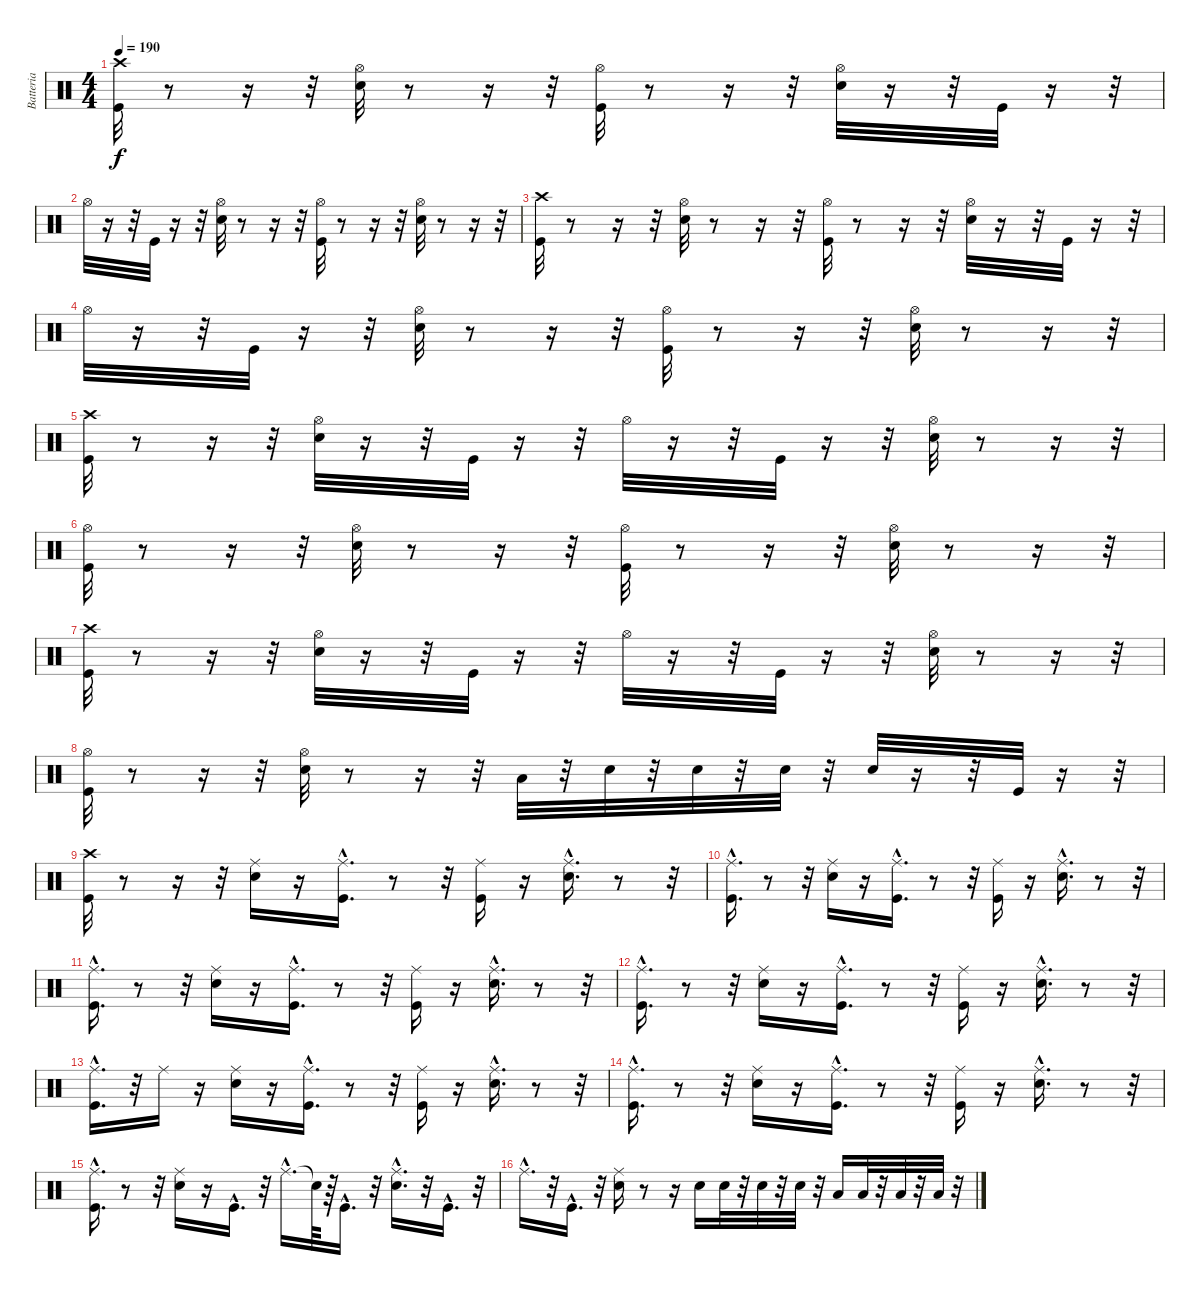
\track ("Batteria" "Batteria") {instrument percussion}
\staff {score}
\articulation defaults
\ts (4 4)
\tempo 190
\clef neutral
\ks c
("Crash high (hit)" "Kick (hit)").32{dy f} r.8 r.16 r.32 ("Snare (hit) 2" "Hi-Hat (open)").32 r.8 r.16 r.32 ("Hi-Hat (open)" "Kick (hit)").32 r.8 r.16 r.32 ("Hi-Hat (open)" "Snare (hit) 2").32 r.16 r.32 "Kick (hit)".32 r.16 r.32 |
"Hi-Hat (open)".32 r.16 r.32 "Kick (hit)".32 r.16 r.32 ("Hi-Hat (open)" "Snare (hit) 2").32 r.8 r.16 r.32 ("Hi-Hat (open)" "Kick (hit)").32 r.8 r.16 r.32 ("Hi-Hat (open)" "Snare (hit) 2").32 r.8 r.16 r.32 |
("Crash high (hit)" "Kick (hit)").32 r.8 r.16 r.32 ("Snare (hit) 2" "Hi-Hat (open)").32 r.8 r.16 r.32 ("Hi-Hat (open)" "Kick (hit)").32 r.8 r.16 r.32 ("Hi-Hat (open)" "Snare (hit) 2").32 r.16 r.32 "Kick (hit)".32 r.16 r.32 |
"Hi-Hat (open)".32 r.16 r.32 "Kick (hit)".32 r.16 r.32 ("Hi-Hat (open)" "Snare (hit) 2").32 r.8 r.16 r.32 ("Hi-Hat (open)" "Kick (hit)").32 r.8 r.16 r.32 ("Hi-Hat (open)" "Snare (hit) 2").32 r.8 r.16 r.32 |
("Crash high (hit)" "Kick (hit)").32 r.8 r.16 r.32 ("Snare (hit) 2" "Hi-Hat (open)").32 r.16 r.32 "Kick (hit)".32 r.16 r.32 "Hi-Hat (open)".32 r.16 r.32 "Kick (hit)".32 r.16 r.32 ("Hi-Hat (open)" "Snare (hit) 2").32 r.8 r.16 r.32 |
("Kick (hit)" "Hi-Hat (open)").32 r.8 r.16 r.32 ("Hi-Hat (open)" "Snare (hit) 2").32 r.8 r.16 r.32 ("Hi-Hat (open)" "Kick (hit)").32 r.8 r.16 r.32 ("Hi-Hat (open)" "Snare (hit) 2").32 r.8 r.16 r.32 |
("Crash high (hit)" "Kick (hit)").32 r.8 r.16 r.32 ("Snare (hit) 2" "Hi-Hat (open)").32 r.16 r.32 "Kick (hit)".32 r.16 r.32 "Hi-Hat (open)".32 r.16 r.32 "Kick (hit)".32 r.16 r.32 ("Hi-Hat (open)" "Snare (hit) 2").32 r.8 r.16 r.32 |
("Kick (hit)" "Hi-Hat (open)").32 r.8 r.16 r.32 ("Hi-Hat (open)" "Snare (hit) 2").32 r.8 r.16 r.32 "Low Tom (hit)".32 r.32 "Snare (hit) 2".32 r.32 "Snare (hit) 2".32 r.32 "Snare (hit) 2".32 r.32 "Snare (hit) 2".32 r.16 r.32 "Kick (hit)".32 r.16 r.32 |
("Crash high (hit)" "Kick (hit)").32 r.8 r.16 r.32 ("Snare (hit) 2" "Ride (middle)").16 r.16 ("Kick (hit)"{hac} "Ride (middle)"{hac}).16{d} r.8 r.32 ("Kick (hit)" "Ride (middle)").16 r.16 ("Snare (hit) 2"{hac} "Ride (middle)"{hac}).16{d} r.8 r.32 |
("Kick (hit)"{hac} "Ride (middle)"{hac}).16{d} r.8 r.32 ("Snare (hit) 2" "Ride (middle)").16 r.16 ("Kick (hit)"{hac} "Ride (middle)"{hac}).16{d} r.8 r.32 ("Kick (hit)" "Ride (middle)").16 r.16 ("Snare (hit) 2"{hac} "Ride (middle)"{hac}).16{d} r.8 r.32 |
("Kick (hit)"{hac} "Ride (middle)"{hac}).16{d} r.8 r.32 ("Snare (hit) 2" "Ride (middle)").16 r.16 ("Kick (hit)"{hac} "Ride (middle)"{hac}).16{d} r.8 r.32 ("Kick (hit)" "Ride (middle)").16 r.16 ("Snare (hit) 2"{hac} "Ride (middle)"{hac}).16{d} r.8 r.32 |
("Kick (hit)"{hac} "Ride (middle)"{hac}).16{d} r.8 r.32 ("Snare (hit) 2" "Ride (middle)").16 r.16 ("Kick (hit)"{hac} "Ride (middle)"{hac}).16{d} r.8 r.32 ("Kick (hit)" "Ride (middle)").16 r.16 ("Snare (hit) 2"{hac} "Ride (middle)"{hac}).16{d} r.8 r.32 |
("Kick (hit)"{hac} "Ride (middle)"{hac}).16{d} r.32 "Ride (middle)".16 r.16 ("Snare (hit) 2" "Ride (middle)").16 r.16 ("Kick (hit)"{hac} "Ride (middle)"{hac}).16{d} r.8 r.32 ("Kick (hit)" "Ride (middle)").16 r.16 ("Snare (hit) 2"{hac} "Ride (middle)"{hac}).16{d} r.8 r.32 |
("Kick (hit)"{hac} "Ride (middle)"{hac}).16{d} r.8 r.32 ("Snare (hit) 2" "Ride (middle)").16 r.16 ("Kick (hit)"{hac} "Ride (middle)"{hac}).16{d} r.8 r.32 ("Kick (hit)" "Ride (middle)").16 r.16 ("Snare (hit) 2"{hac} "Ride (middle)"{hac}).16{d} r.8 r.32 |
("Kick (hit)"{hac} "Ride (middle)"{hac}).16{d} r.8 r.32 ("Snare (hit) 2" "Ride (middle)").16 r.16 "Kick (hit)"{hac}.16{d} r.32 "Ride (middle)"{hac}.16{d} "Snare (hit)"{t}.64 r.64 "Kick (hit)"{hac}.16{d} r.32 ("Snare (hit) 2"{hac} "Ride (middle)"{hac}).16{d} r.32 "Kick (hit)"{hac}.16{d} r.32 |
"Ride (middle)"{hac}.16{d} r.32 "Kick (hit)"{hac}.16{d} r.32 ("Snare (hit) 2" "Ride (middle)").16 r.8 r.16 "Snare (hit) 2".16 "Snare (hit) 2".32 r.32 "Snare (hit) 2".32 r.32 "Snare (hit) 2".32 r.32 "Low Tom (hit)".16 "Low Tom (hit)".32 r.32 "Low Tom (hit)".32 r.32 "Low Tom (hit)".32 r.32
